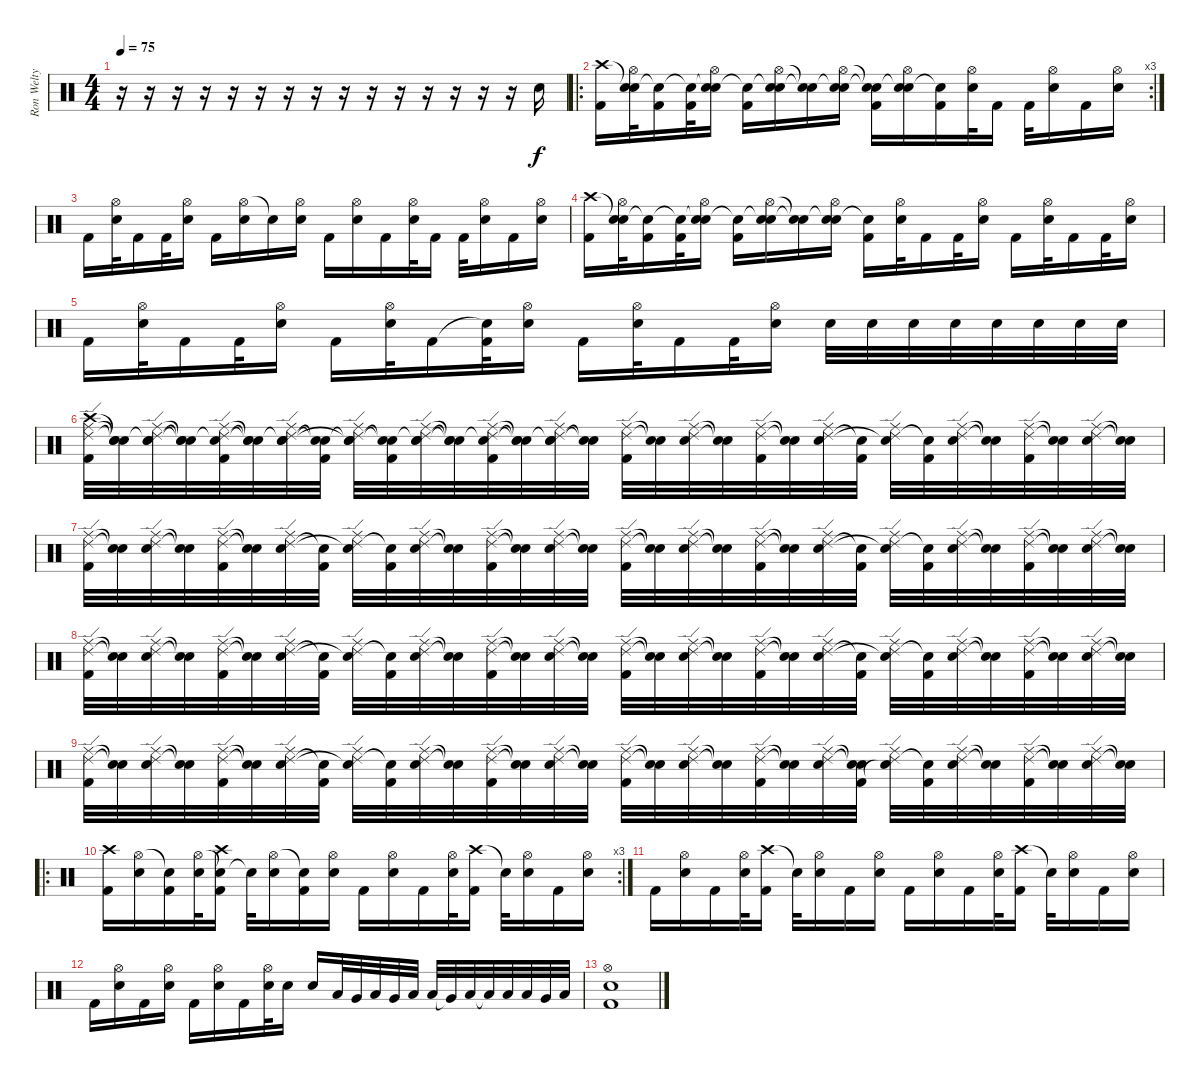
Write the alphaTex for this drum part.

\track ("Ron Welty" "Ron Welty") {instrument percussion}
\staff {score}
\articulation defaults
\ts (4 4)
\tempo 75
\clef neutral
\ks c
r.16{dy f} r.16 r.16 r.16 r.16 r.16 r.16 r.16 r.16 r.16 r.16 r.16 r.16 r.16 r.16 "Electric Snare (hit)".16 |
\ro
\rc 3
("Crash high (hit)" "Kick (hit) 2").16 ("Snare (hit)"{t} "Hi-Hat (open)" "Electric Snare (hit)").32 ("Snare (hit)"{t} "Kick (hit) 2").16 ("Snare (hit)"{t} "Kick (hit) 2").32 ("Snare (hit)"{t} "Hi-Hat (open)" "Electric Snare (hit)").16 ("Snare (hit)"{t} "Kick (hit) 2").16 ("Snare (hit)"{t} "Hi-Hat (open)" "Electric Snare (hit)").16 ("Snare (hit)"{t} "Snare (hit)"{t}).16 ("Snare (hit)"{t} "Hi-Hat (open)" "Electric Snare (hit)").16 ("Snare (hit)"{t} "Snare (hit)"{t} "Kick (hit) 2").16 ("Snare (hit)"{t} "Hi-Hat (open)" "Electric Snare (hit)").16 ("Snare (hit)"{t} "Kick (hit) 2").16 ("Hi-Hat (open)" "Electric Snare (hit)").32 "Kick (hit) 2".16 "Kick (hit) 2".32 ("Hi-Hat (open)" "Electric Snare (hit)").16 "Kick (hit) 2".16 ("Hi-Hat (open)" "Electric Snare (hit)").16 |
"Kick (hit) 2".16 ("Hi-Hat (open)" "Electric Snare (hit)").32 "Kick (hit) 2".16 "Kick (hit) 2".32 ("Hi-Hat (open)" "Electric Snare (hit)").16 "Kick (hit) 2".16 ("Hi-Hat (open)" "Electric Snare (hit)").16 "Snare (hit)"{t}.16 ("Hi-Hat (open)" "Electric Snare (hit)").16 "Kick (hit) 2".16 ("Hi-Hat (open)" "Electric Snare (hit)").16 "Kick (hit) 2".16 ("Hi-Hat (open)" "Electric Snare (hit)").32 "Kick (hit) 2".16 "Kick (hit) 2".32 ("Hi-Hat (open)" "Electric Snare (hit)").16 "Kick (hit) 2".16 ("Hi-Hat (open)" "Electric Snare (hit)").16 |
("Crash high (hit)" "Kick (hit) 2").16 ("Snare (hit)"{t} "Hi-Hat (open)" "Electric Snare (hit)").32 ("Snare (hit)"{t} "Kick (hit) 2").16 ("Snare (hit)"{t} "Kick (hit) 2").32 ("Snare (hit)"{t} "Hi-Hat (open)" "Electric Snare (hit)").16 ("Snare (hit)"{t} "Kick (hit) 2").16 ("Snare (hit)"{t} "Hi-Hat (open)" "Electric Snare (hit)").16 ("Snare (hit)"{t} "Snare (hit)"{t}).16 ("Snare (hit)"{t} "Hi-Hat (open)" "Electric Snare (hit)").16 ("Snare (hit)"{t} "Kick (hit) 2").16 ("Hi-Hat (open)" "Electric Snare (hit)").32 "Kick (hit) 2".16 "Kick (hit) 2".32 ("Hi-Hat (open)" "Electric Snare (hit)").16 "Kick (hit) 2".16 ("Hi-Hat (open)" "Electric Snare (hit)").32 "Kick (hit) 2".16 "Kick (hit) 2".32 ("Hi-Hat (open)" "Electric Snare (hit)").16 |
"Kick (hit) 2".16 ("Hi-Hat (open)" "Electric Snare (hit)").32 "Kick (hit) 2".16 "Kick (hit) 2".32 ("Hi-Hat (open)" "Electric Snare (hit)").16 "Kick (hit) 2".16 ("Hi-Hat (open)" "Electric Snare (hit)").32 "Kick (hit) 2".16 ("Snare (hit)"{t} "Kick (hit) 2").32 ("Hi-Hat (open)" "Electric Snare (hit)").16 "Kick (hit) 2".16 ("Hi-Hat (open)" "Electric Snare (hit)").32 "Kick (hit) 2".16 "Kick (hit) 2".32 ("Hi-Hat (open)" "Electric Snare (hit)").16 "Electric Snare (hit)".32 "Electric Snare (hit)".32 "Electric Snare (hit)".32 "Electric Snare (hit)".32 "Electric Snare (hit)".32 "Electric Snare (hit)".32 "Electric Snare (hit)".32 "Electric Snare (hit)".32 |
("Crash high (hit)" "Ride (edge) 2" "Ride (middle)" "Kick (hit) 2").32 ("Snare (hit)"{t} "Snare (hit)"{t} "Snare (hit)"{t}).32 ("Snare (hit)"{t} "Ride (edge) 2" "Ride (middle)" "Electric Snare (hit)").32 ("Snare (hit)"{t} "Snare (hit)"{t} "Snare (hit)"{t}).32 ("Snare (hit)"{t} "Ride (edge) 2" "Ride (middle)" "Kick (hit) 2").32 ("Snare (hit)"{t} "Snare (hit)"{t} "Snare (hit)"{t}).32 ("Snare (hit)"{t} "Ride (edge) 2" "Ride (middle)" "Electric Snare (hit)").32 ("Snare (hit)"{t} "Snare (hit)"{t} "Kick (hit) 2").32 ("Snare (hit)"{t} "Ride (edge) 2" "Ride (middle)" "Snare (hit)"{t}).32 ("Snare (hit)"{t} "Snare (hit)"{t} "Kick (hit) 2").32 ("Snare (hit)"{t} "Ride (edge) 2" "Ride (middle)" "Electric Snare (hit)").32 ("Snare (hit)"{t} "Snare (hit)"{t} "Snare (hit)"{t}).32 ("Snare (hit)"{t} "Ride (edge) 2" "Ride (middle)" "Kick (hit) 2").32 ("Snare (hit)"{t} "Snare (hit)"{t} "Snare (hit)"{t}).32 ("Snare (hit)"{t} "Ride (edge) 2" "Ride (middle)" "Electric Snare (hit)").32 ("Snare (hit)"{t} "Snare (hit)"{t}).32 ("Ride (edge) 2" "Ride (middle)" "Kick (hit) 2").32 ("Snare (hit)"{t} "Snare (hit)"{t}).32 ("Ride (edge) 2" "Ride (middle)" "Electric Snare (hit)").32 ("Snare (hit)"{t} "Snare (hit)"{t}).32 ("Ride (edge) 2" "Ride (middle)" "Kick (hit) 2").32 ("Snare (hit)"{t} "Snare (hit)"{t}).32 ("Ride (edge) 2" "Ride (middle)" "Electric Snare (hit)").32 ("Snare (hit)"{t} "Kick (hit) 2").32 ("Ride (edge) 2" "Ride (middle)" "Snare (hit)"{t}).32 ("Snare (hit)"{t} "Kick (hit) 2").32 ("Ride (edge) 2" "Ride (middle)" "Electric Snare (hit)").32 ("Snare (hit)"{t} "Snare (hit)"{t}).32 ("Ride (edge) 2" "Ride (middle)" "Kick (hit) 2").32 ("Snare (hit)"{t} "Snare (hit)"{t}).32 ("Ride (edge) 2" "Ride (middle)" "Electric Snare (hit)").32 ("Snare (hit)"{t} "Snare (hit)"{t}).32 |
("Ride (edge) 2" "Ride (middle)" "Kick (hit) 2").32 ("Snare (hit)"{t} "Snare (hit)"{t}).32 ("Ride (edge) 2" "Ride (middle)" "Electric Snare (hit)").32 ("Snare (hit)"{t} "Snare (hit)"{t}).32 ("Ride (edge) 2" "Ride (middle)" "Kick (hit) 2").32 ("Snare (hit)"{t} "Snare (hit)"{t}).32 ("Ride (edge) 2" "Ride (middle)" "Electric Snare (hit)").32 ("Snare (hit)"{t} "Kick (hit) 2").32 ("Ride (edge) 2" "Ride (middle)" "Snare (hit)"{t}).32 ("Snare (hit)"{t} "Kick (hit) 2").32 ("Ride (edge) 2" "Ride (middle)" "Electric Snare (hit)").32 ("Snare (hit)"{t} "Snare (hit)"{t}).32 ("Ride (edge) 2" "Ride (middle)" "Kick (hit) 2").32 ("Snare (hit)"{t} "Snare (hit)"{t}).32 ("Ride (edge) 2" "Ride (middle)" "Electric Snare (hit)").32 ("Snare (hit)"{t} "Snare (hit)"{t}).32 ("Ride (edge) 2" "Ride (middle)" "Kick (hit) 2").32 ("Snare (hit)"{t} "Snare (hit)"{t}).32 ("Ride (edge) 2" "Ride (middle)" "Electric Snare (hit)").32 ("Snare (hit)"{t} "Snare (hit)"{t}).32 ("Ride (edge) 2" "Ride (middle)" "Kick (hit) 2").32 ("Snare (hit)"{t} "Snare (hit)"{t}).32 ("Ride (edge) 2" "Ride (middle)" "Electric Snare (hit)").32 ("Snare (hit)"{t} "Kick (hit) 2").32 ("Ride (edge) 2" "Ride (middle)" "Snare (hit)"{t}).32 ("Snare (hit)"{t} "Kick (hit) 2").32 ("Ride (edge) 2" "Ride (middle)" "Electric Snare (hit)").32 ("Snare (hit)"{t} "Snare (hit)"{t}).32 ("Ride (edge) 2" "Ride (middle)" "Kick (hit) 2").32 ("Snare (hit)"{t} "Snare (hit)"{t}).32 ("Ride (edge) 2" "Ride (middle)" "Electric Snare (hit)").32 ("Snare (hit)"{t} "Snare (hit)"{t}).32 |
("Ride (edge) 2" "Ride (middle)" "Kick (hit) 2").32 ("Snare (hit)"{t} "Snare (hit)"{t}).32 ("Ride (edge) 2" "Ride (middle)" "Electric Snare (hit)").32 ("Snare (hit)"{t} "Snare (hit)"{t}).32 ("Ride (edge) 2" "Ride (middle)" "Kick (hit) 2").32 ("Snare (hit)"{t} "Snare (hit)"{t}).32 ("Ride (edge) 2" "Ride (middle)" "Electric Snare (hit)").32 ("Snare (hit)"{t} "Kick (hit) 2").32 ("Ride (edge) 2" "Ride (middle)" "Snare (hit)"{t}).32 ("Snare (hit)"{t} "Kick (hit) 2").32 ("Ride (edge) 2" "Ride (middle)" "Electric Snare (hit)").32 ("Snare (hit)"{t} "Snare (hit)"{t}).32 ("Ride (edge) 2" "Ride (middle)" "Kick (hit) 2").32 ("Snare (hit)"{t} "Snare (hit)"{t}).32 ("Ride (edge) 2" "Ride (middle)" "Electric Snare (hit)").32 ("Snare (hit)"{t} "Snare (hit)"{t}).32 ("Ride (edge) 2" "Ride (middle)" "Kick (hit) 2").32 ("Snare (hit)"{t} "Snare (hit)"{t}).32 ("Ride (edge) 2" "Ride (middle)" "Electric Snare (hit)").32 ("Snare (hit)"{t} "Snare (hit)"{t}).32 ("Ride (edge) 2" "Ride (middle)" "Kick (hit) 2").32 ("Snare (hit)"{t} "Snare (hit)"{t}).32 ("Ride (edge) 2" "Ride (middle)" "Electric Snare (hit)").32 ("Snare (hit)"{t} "Kick (hit) 2").32 ("Ride (edge) 2" "Ride (middle)" "Snare (hit)"{t}).32 ("Snare (hit)"{t} "Kick (hit) 2").32 ("Ride (edge) 2" "Ride (middle)" "Electric Snare (hit)").32 ("Snare (hit)"{t} "Snare (hit)"{t}).32 ("Ride (edge) 2" "Ride (middle)" "Kick (hit) 2").32 ("Snare (hit)"{t} "Snare (hit)"{t}).32 ("Ride (edge) 2" "Ride (middle)" "Electric Snare (hit)").32 ("Snare (hit)"{t} "Snare (hit)"{t}).32 |
("Ride (edge) 2" "Ride (middle)" "Kick (hit) 2").32 ("Snare (hit)"{t} "Snare (hit)"{t}).32 ("Ride (edge) 2" "Ride (middle)" "Electric Snare (hit)").32 ("Snare (hit)"{t} "Snare (hit)"{t}).32 ("Ride (edge) 2" "Ride (middle)" "Kick (hit) 2").32 ("Snare (hit)"{t} "Snare (hit)"{t}).32 ("Ride (edge) 2" "Ride (middle)" "Electric Snare (hit)").32 ("Snare (hit)"{t} "Kick (hit) 2").32 ("Ride (edge) 2" "Ride (middle)" "Snare (hit)"{t}).32 ("Snare (hit)"{t} "Kick (hit) 2").32 ("Ride (edge) 2" "Ride (middle)" "Electric Snare (hit)").32 ("Snare (hit)"{t} "Snare (hit)"{t}).32 ("Ride (edge) 2" "Ride (middle)" "Kick (hit) 2").32 ("Snare (hit)"{t} "Snare (hit)"{t}).32 ("Ride (edge) 2" "Ride (middle)" "Electric Snare (hit)").32 ("Snare (hit)"{t} "Snare (hit)"{t}).32 ("Ride (edge) 2" "Ride (middle)" "Kick (hit) 2").32 ("Snare (hit)"{t} "Snare (hit)"{t}).32 ("Ride (edge) 2" "Ride (middle)" "Electric Snare (hit)").32 ("Snare (hit)"{t} "Snare (hit)"{t}).32 ("Ride (edge) 2" "Ride (middle)" "Kick (hit) 2").32 ("Snare (hit)"{t} "Snare (hit)"{t}).32 ("Ride (edge) 2" "Ride (middle)" "Electric Snare (hit)").32 ("Snare (hit)"{t} "Snare (hit)"{t} "Kick (hit) 2").32 ("Ride (edge) 2" "Ride (middle)" "Snare (hit)"{t}).32 ("Snare (hit)"{t} "Kick (hit) 2").32 ("Ride (edge) 2" "Ride (middle)" "Electric Snare (hit)").32 ("Snare (hit)"{t} "Snare (hit)"{t}).32 ("Ride (edge) 2" "Ride (middle)" "Kick (hit) 2").32 ("Snare (hit)"{t} "Snare (hit)"{t}).32 ("Ride (edge) 2" "Ride (middle)" "Electric Snare (hit)").32 ("Snare (hit)"{t} "Snare (hit)"{t}).32 |
\ro
\rc 3
("Crash high (hit)" "Kick (hit) 2").16 ("Hi-Hat (open)" "Electric Snare (hit)").16 ("Snare (hit)"{t} "Kick (hit) 2").16 ("Hi-Hat (open)" "Electric Snare (hit)").32 ("Snare (hit)"{t} "Crash high (hit)" "Kick (hit) 2").16 "Snare (hit)"{t}.32 ("Hi-Hat (open)" "Electric Snare (hit)").16 ("Snare (hit)"{t} "Kick (hit) 2").16 ("Hi-Hat (open)" "Electric Snare (hit)").16 "Kick (hit) 2".16 ("Hi-Hat (open)" "Electric Snare (hit)").16 "Kick (hit) 2".16 ("Hi-Hat (open)" "Electric Snare (hit)").32 ("Crash high (hit)" "Kick (hit) 2").16 "Snare (hit)"{t}.32 ("Hi-Hat (open)" "Electric Snare (hit)").16 "Kick (hit) 2".16 ("Hi-Hat (open)" "Electric Snare (hit)").16 |
"Kick (hit) 2".16 ("Hi-Hat (open)" "Electric Snare (hit)").16 "Kick (hit) 2".16 ("Hi-Hat (open)" "Electric Snare (hit)").32 ("Crash high (hit)" "Kick (hit) 2").16 "Snare (hit)"{t}.32 ("Hi-Hat (open)" "Electric Snare (hit)").16 "Kick (hit) 2".16 ("Hi-Hat (open)" "Electric Snare (hit)").16 "Kick (hit) 2".16 ("Hi-Hat (open)" "Electric Snare (hit)").16 "Kick (hit) 2".16 ("Hi-Hat (open)" "Electric Snare (hit)").32 ("Crash high (hit)" "Kick (hit) 2").16 "Snare (hit)"{t}.32 ("Hi-Hat (open)" "Electric Snare (hit)").16 "Kick (hit) 2".16 ("Hi-Hat (open)" "Electric Snare (hit)").16 |
"Kick (hit) 2".16 ("Hi-Hat (open)" "Electric Snare (hit)").16 "Kick (hit) 2".16 ("Hi-Hat (open)" "Electric Snare (hit)").16 "Kick (hit) 2".16 ("Hi-Hat (open)" "Electric Snare (hit)").16 "Kick (hit) 2".16 ("Hi-Hat (open)" "Electric Snare (hit)").32 "Electric Snare (hit)".16 "Electric Snare (hit)".16 "Low Tom (hit)".32 "Very Low Tom (hit)".32 "Low Tom (hit)".32 "Very Low Tom (hit)".32 "Low Tom (hit)".32 "Low Tom (hit)".32 "Very Low Tom (hit)"{t}.32 "Low Tom (hit)".32 "Low Tom (hit)"{t}.32 "Low Tom (hit)".32 "Low Tom (hit)".32 "Very Low Tom (hit)".32 "Low Floor Tom (hit)".32 |
("Hi-Hat (open)" "Electric Snare (hit)" "Kick (hit) 2").1
